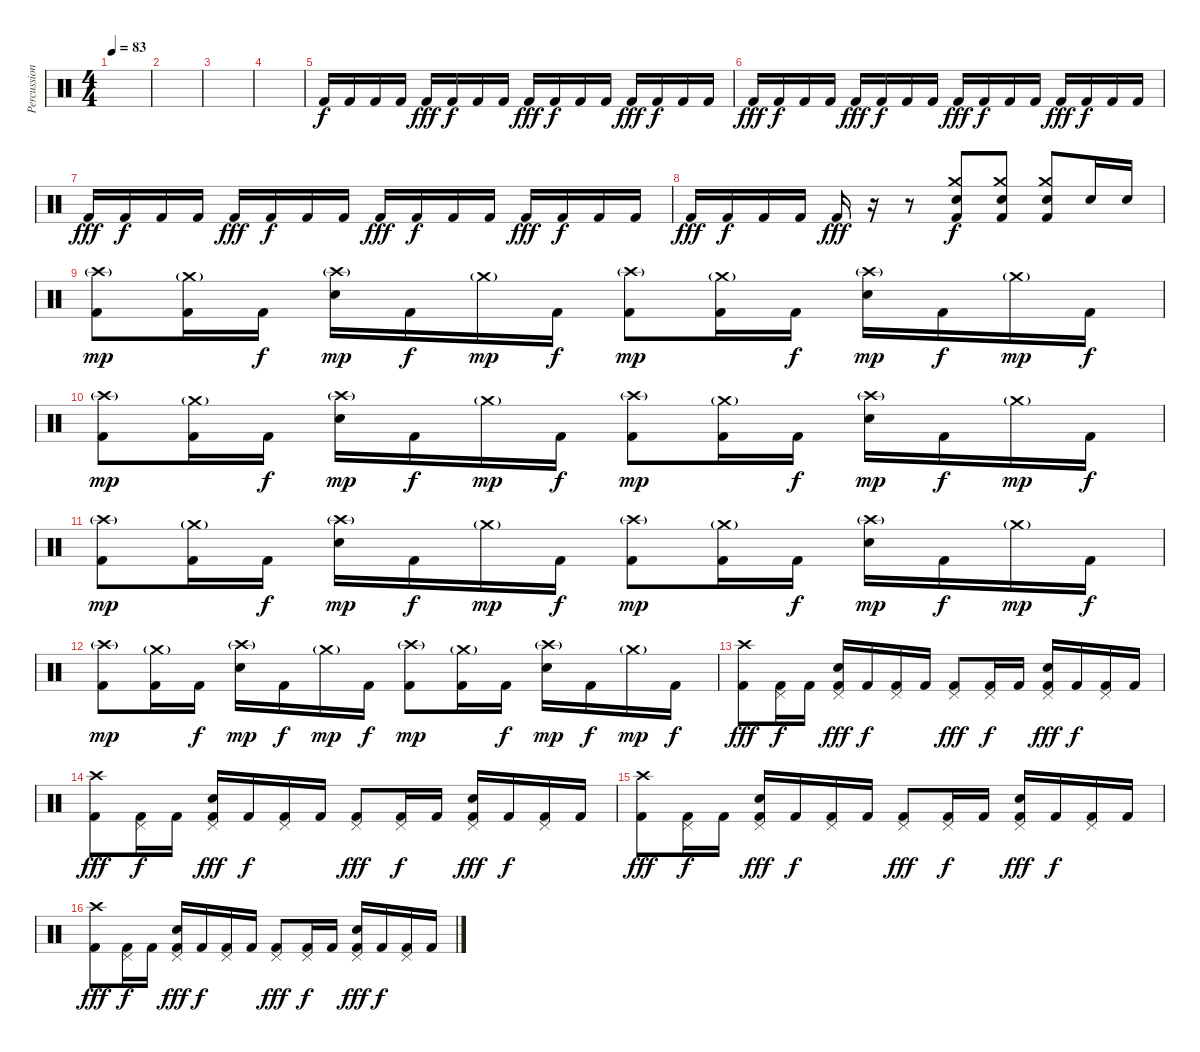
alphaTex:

\track ("Percussions" "Percussion") {instrument percussion}
\staff {score}
\articulation defaults
\ts (4 4)
\tempo 83
\clef neutral
\ks c
|
|
|
|
"Kick (hit) 2".16{volume 14} "Kick (hit) 2".16{dy f} "Kick (hit) 2".16 "Kick (hit) 2".16 "Kick (hit) 2".16{dy fff} "Kick (hit) 2".16{dy f} "Kick (hit) 2".16 "Kick (hit) 2".16 "Kick (hit) 2".16{dy fff} "Kick (hit) 2".16{dy f} "Kick (hit) 2".16 "Kick (hit) 2".16 "Kick (hit) 2".16{dy fff} "Kick (hit) 2".16{dy f} "Kick (hit) 2".16 "Kick (hit) 2".16 |
"Kick (hit) 2".16{dy fff} "Kick (hit) 2".16{dy f} "Kick (hit) 2".16 "Kick (hit) 2".16 "Kick (hit) 2".16{dy fff} "Kick (hit) 2".16{dy f} "Kick (hit) 2".16 "Kick (hit) 2".16 "Kick (hit) 2".16{dy fff} "Kick (hit) 2".16{dy f} "Kick (hit) 2".16 "Kick (hit) 2".16 "Kick (hit) 2".16{dy fff} "Kick (hit) 2".16{dy f} "Kick (hit) 2".16 "Kick (hit) 2".16 |
"Kick (hit) 2".16{dy fff} "Kick (hit) 2".16{dy f} "Kick (hit) 2".16 "Kick (hit) 2".16 "Kick (hit) 2".16{dy fff} "Kick (hit) 2".16{dy f} "Kick (hit) 2".16 "Kick (hit) 2".16 "Kick (hit) 2".16{dy fff} "Kick (hit) 2".16{dy f} "Kick (hit) 2".16 "Kick (hit) 2".16 "Kick (hit) 2".16{dy fff} "Kick (hit) 2".16{dy f} "Kick (hit) 2".16 "Kick (hit) 2".16 |
"Kick (hit) 2".16{dy fff} "Kick (hit) 2".16{dy f} "Kick (hit) 2".16 "Kick (hit) 2".16 "Kick (hit) 2".16{dy fff} r.16 r.8 ("Crash medium (hit)" "Electric Snare (hit)" "Kick (hit) 2").8{dy f} ("Crash medium (hit)" "Electric Snare (hit)" "Kick (hit) 2").8 ("Crash medium (hit)" "Electric Snare (hit)" "Kick (hit) 2").8 "Electric Snare (hit)".16 "Electric Snare (hit)".16 |
("Crash high (hit)"{g} "Kick (hit) 2").8{dy mp} ("Crash medium (hit)"{g} "Kick (hit) 2").16 "Kick (hit) 2".16{dy f} ("Crash high (hit)"{g} "Electric Snare (hit)").16{dy mp} "Kick (hit) 2".16{dy f} "Crash medium (hit)"{g}.16{dy mp} "Kick (hit) 2".16{dy f} ("Crash high (hit)"{g} "Kick (hit) 2").8{dy mp} ("Crash medium (hit)"{g} "Kick (hit) 2").16 "Kick (hit) 2".16{dy f} ("Crash high (hit)"{g} "Electric Snare (hit)").16{dy mp} "Kick (hit) 2".16{dy f} "Crash medium (hit)"{g}.16{dy mp} "Kick (hit) 2".16{dy f} |
("Crash high (hit)"{g} "Kick (hit) 2").8{dy mp} ("Crash medium (hit)"{g} "Kick (hit) 2").16 "Kick (hit) 2".16{dy f} ("Crash high (hit)"{g} "Electric Snare (hit)").16{dy mp} "Kick (hit) 2".16{dy f} "Crash medium (hit)"{g}.16{dy mp} "Kick (hit) 2".16{dy f} ("Crash high (hit)"{g} "Kick (hit) 2").8{dy mp} ("Crash medium (hit)"{g} "Kick (hit) 2").16 "Kick (hit) 2".16{dy f} ("Crash high (hit)"{g} "Electric Snare (hit)").16{dy mp} "Kick (hit) 2".16{dy f} "Crash medium (hit)"{g}.16{dy mp} "Kick (hit) 2".16{dy f} |
("Crash high (hit)"{g} "Kick (hit) 2").8{dy mp} ("Crash medium (hit)"{g} "Kick (hit) 2").16 "Kick (hit) 2".16{dy f} ("Crash high (hit)"{g} "Electric Snare (hit)").16{dy mp} "Kick (hit) 2".16{dy f} "Crash medium (hit)"{g}.16{dy mp} "Kick (hit) 2".16{dy f} ("Crash high (hit)"{g} "Kick (hit) 2").8{dy mp} ("Crash medium (hit)"{g} "Kick (hit) 2").16 "Kick (hit) 2".16{dy f} ("Crash high (hit)"{g} "Electric Snare (hit)").16{dy mp} "Kick (hit) 2".16{dy f} "Crash medium (hit)"{g}.16{dy mp} "Kick (hit) 2".16{dy f} |
("Crash high (hit)"{g} "Kick (hit) 2").8{dy mp} ("Crash medium (hit)"{g} "Kick (hit) 2").16 "Kick (hit) 2".16{dy f} ("Crash high (hit)"{g} "Electric Snare (hit)").16{dy mp} "Kick (hit) 2".16{dy f} "Crash medium (hit)"{g}.16{dy mp} "Kick (hit) 2".16{dy f} ("Crash high (hit)"{g} "Kick (hit) 2").8{dy mp} ("Crash medium (hit)"{g} "Kick (hit) 2").16 "Kick (hit) 2".16{dy f} ("Crash high (hit)"{g} "Electric Snare (hit)").16{dy mp} "Kick (hit) 2".16{dy f} "Crash medium (hit)"{g}.16{dy mp} "Kick (hit) 2".16{dy f} |
("Crash high (hit)" "Kick (hit) 2").8{dy fff} ("Pedal Hi-Hat (hit)" "Kick (hit) 2").16{dy f} "Kick (hit) 2".16 ("Pedal Hi-Hat (hit)" "Electric Snare (hit)" "Kick (hit) 2").16{dy fff} "Kick (hit) 2".16{dy f} ("Pedal Hi-Hat (hit)" "Kick (hit) 2").16 "Kick (hit) 2".16 ("Pedal Hi-Hat (hit)" "Kick (hit) 2").8{dy fff} ("Pedal Hi-Hat (hit)" "Kick (hit) 2").16{dy f} "Kick (hit) 2".16 ("Pedal Hi-Hat (hit)" "Electric Snare (hit)" "Kick (hit) 2").16{dy fff} "Kick (hit) 2".16{dy f} ("Pedal Hi-Hat (hit)" "Kick (hit) 2").16 "Kick (hit) 2".16 |
("Crash high (hit)" "Kick (hit) 2").8{dy fff} ("Pedal Hi-Hat (hit)" "Kick (hit) 2").16{dy f} "Kick (hit) 2".16 ("Pedal Hi-Hat (hit)" "Electric Snare (hit)" "Kick (hit) 2").16{dy fff} "Kick (hit) 2".16{dy f} ("Pedal Hi-Hat (hit)" "Kick (hit) 2").16 "Kick (hit) 2".16 ("Pedal Hi-Hat (hit)" "Kick (hit) 2").8{dy fff} ("Pedal Hi-Hat (hit)" "Kick (hit) 2").16{dy f} "Kick (hit) 2".16 ("Pedal Hi-Hat (hit)" "Electric Snare (hit)" "Kick (hit) 2").16{dy fff} "Kick (hit) 2".16{dy f} ("Pedal Hi-Hat (hit)" "Kick (hit) 2").16 "Kick (hit) 2".16 |
("Crash high (hit)" "Kick (hit) 2").8{dy fff} ("Pedal Hi-Hat (hit)" "Kick (hit) 2").16{dy f} "Kick (hit) 2".16 ("Pedal Hi-Hat (hit)" "Electric Snare (hit)" "Kick (hit) 2").16{dy fff} "Kick (hit) 2".16{dy f} ("Pedal Hi-Hat (hit)" "Kick (hit) 2").16 "Kick (hit) 2".16 ("Pedal Hi-Hat (hit)" "Kick (hit) 2").8{dy fff} ("Pedal Hi-Hat (hit)" "Kick (hit) 2").16{dy f} "Kick (hit) 2".16 ("Pedal Hi-Hat (hit)" "Electric Snare (hit)" "Kick (hit) 2").16{dy fff} "Kick (hit) 2".16{dy f} ("Pedal Hi-Hat (hit)" "Kick (hit) 2").16 "Kick (hit) 2".16 |
("Crash high (hit)" "Kick (hit) 2").8{dy fff} ("Pedal Hi-Hat (hit)" "Kick (hit) 2").16{dy f} "Kick (hit) 2".16 ("Pedal Hi-Hat (hit)" "Electric Snare (hit)" "Kick (hit) 2").16{dy fff} "Kick (hit) 2".16{dy f} ("Pedal Hi-Hat (hit)" "Kick (hit) 2").16 "Kick (hit) 2".16 ("Pedal Hi-Hat (hit)" "Kick (hit) 2").8{dy fff} ("Pedal Hi-Hat (hit)" "Kick (hit) 2").16{dy f} "Kick (hit) 2".16 ("Pedal Hi-Hat (hit)" "Electric Snare (hit)" "Kick (hit) 2").16{dy fff} "Kick (hit) 2".16{dy f} ("Pedal Hi-Hat (hit)" "Kick (hit) 2").16 "Kick (hit) 2".16
